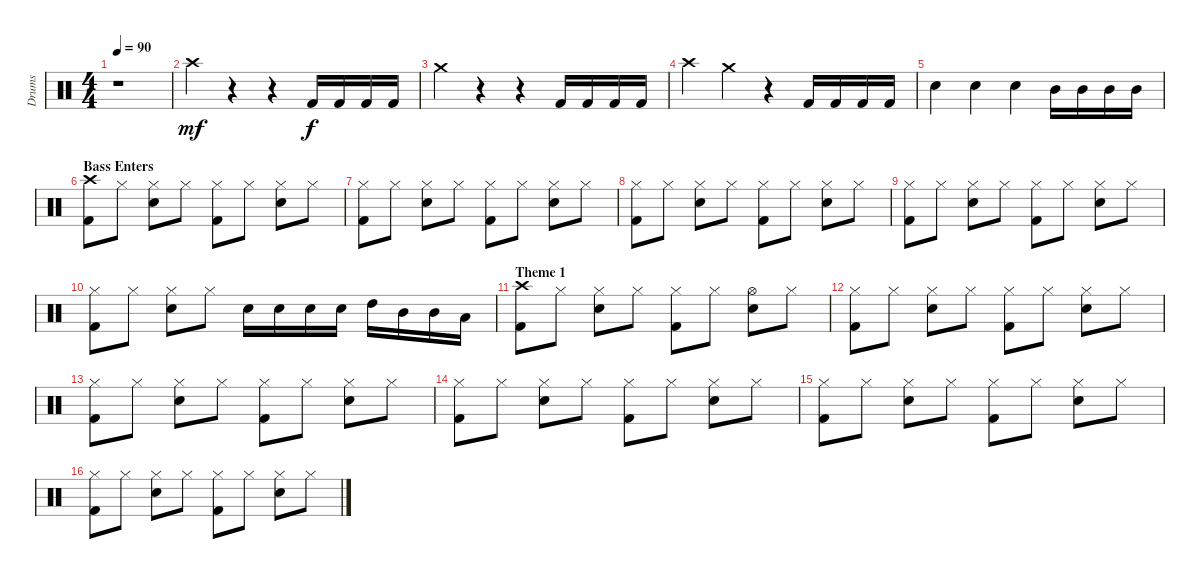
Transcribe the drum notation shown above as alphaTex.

\track ("Drums" "Drums") {instrument percussion}
\staff {score}
\articulation defaults
\ts (4 4)
\tempo 90
\clef neutral
\ks c
r.1{dy mf} |
"Crash high (hit)".4 r.4 r.4 "Kick (hit) 2".16{dy f} "Kick (hit) 2".16 "Kick (hit) 2".16 "Kick (hit) 2".16 |
"Crash medium (hit)".4 r.4 r.4 "Kick (hit) 2".16 "Kick (hit) 2".16 "Kick (hit) 2".16 "Kick (hit) 2".16 |
"Crash high (hit)".4 "Crash medium (hit)".4 r.4 "Kick (hit) 2".16 "Kick (hit) 2".16 "Kick (hit) 2".16 "Kick (hit) 2".16 |
"Electric Snare (hit)".4 "Electric Snare (hit)".4 "Electric Snare (hit)".4 "Mid Tom (hit)".16 "Mid Tom (hit)".16 "Mid Tom (hit)".16 "Mid Tom (hit)".16 |
\section ("" "Bass Enters")
("Crash high (hit)" "Kick (hit) 2").8 "Hi-Hat (closed)".8 ("Hi-Hat (closed)" "Electric Snare (hit)").8 "Hi-Hat (closed)".8 ("Hi-Hat (closed)" "Kick (hit) 2").8 "Hi-Hat (closed)".8 ("Hi-Hat (closed)" "Electric Snare (hit)").8 "Hi-Hat (closed)".8 |
("Hi-Hat (closed)" "Kick (hit) 2").8 "Hi-Hat (closed)".8 ("Hi-Hat (closed)" "Electric Snare (hit)").8 "Hi-Hat (closed)".8 ("Hi-Hat (closed)" "Kick (hit) 2").8 "Hi-Hat (closed)".8 ("Hi-Hat (closed)" "Electric Snare (hit)").8 "Hi-Hat (closed)".8 |
("Hi-Hat (closed)" "Kick (hit) 2").8 "Hi-Hat (closed)".8 ("Hi-Hat (closed)" "Electric Snare (hit)").8 "Hi-Hat (closed)".8 ("Hi-Hat (closed)" "Kick (hit) 2").8 "Hi-Hat (closed)".8 ("Hi-Hat (closed)" "Electric Snare (hit)").8 "Hi-Hat (closed)".8 |
("Hi-Hat (closed)" "Kick (hit) 2").8 "Hi-Hat (closed)".8 ("Hi-Hat (closed)" "Electric Snare (hit)").8 "Hi-Hat (closed)".8 ("Hi-Hat (closed)" "Kick (hit) 2").8 "Hi-Hat (closed)".8 ("Hi-Hat (closed)" "Electric Snare (hit)").8 "Hi-Hat (closed)".8 |
("Hi-Hat (closed)" "Kick (hit) 2").8 "Hi-Hat (closed)".8 ("Hi-Hat (closed)" "Electric Snare (hit)").8 "Hi-Hat (closed)".8 "Electric Snare (hit)".16 "Electric Snare (hit)".16 "Electric Snare (hit)".16 "Electric Snare (hit)".16 "High Tom (hit)".16 "Mid Tom (hit)".16 "Mid Tom (hit)".16 "Low Tom (hit)".16 |
\section ("" "Theme 1")
("Crash high (hit)" "Kick (hit) 2").8 "Hi-Hat (closed)".8 ("Hi-Hat (closed)" "Electric Snare (hit)").8 "Hi-Hat (closed)".8 ("Hi-Hat (closed)" "Kick (hit) 2").8 "Hi-Hat (closed)".8 ("Hi-Hat (open)" "Electric Snare (hit)").8 "Hi-Hat (closed)".8 |
("Hi-Hat (closed)" "Kick (hit) 2").8 "Hi-Hat (closed)".8 ("Hi-Hat (closed)" "Electric Snare (hit)").8 "Hi-Hat (closed)".8 ("Hi-Hat (closed)" "Kick (hit) 2").8 "Hi-Hat (closed)".8 ("Hi-Hat (closed)" "Electric Snare (hit)").8 "Hi-Hat (closed)".8 |
("Hi-Hat (closed)" "Kick (hit) 2").8 "Hi-Hat (closed)".8 ("Hi-Hat (closed)" "Electric Snare (hit)").8 "Hi-Hat (closed)".8 ("Hi-Hat (closed)" "Kick (hit) 2").8 "Hi-Hat (closed)".8 ("Hi-Hat (closed)" "Electric Snare (hit)").8 "Hi-Hat (closed)".8 |
("Hi-Hat (closed)" "Kick (hit) 2").8 "Hi-Hat (closed)".8 ("Hi-Hat (closed)" "Electric Snare (hit)").8 "Hi-Hat (closed)".8 ("Hi-Hat (closed)" "Kick (hit) 2").8 "Hi-Hat (closed)".8 ("Hi-Hat (closed)" "Electric Snare (hit)").8 "Hi-Hat (closed)".8 |
("Hi-Hat (closed)" "Kick (hit) 2").8 "Hi-Hat (closed)".8 ("Hi-Hat (closed)" "Electric Snare (hit)").8 "Hi-Hat (closed)".8 ("Hi-Hat (closed)" "Kick (hit) 2").8 "Hi-Hat (closed)".8 ("Hi-Hat (closed)" "Electric Snare (hit)").8 "Hi-Hat (closed)".8 |
("Hi-Hat (closed)" "Kick (hit) 2").8 "Hi-Hat (closed)".8 ("Hi-Hat (closed)" "Electric Snare (hit)").8 "Hi-Hat (closed)".8 ("Hi-Hat (closed)" "Kick (hit) 2").8 "Hi-Hat (closed)".8 ("Hi-Hat (closed)" "Electric Snare (hit)").8 "Hi-Hat (closed)".8
